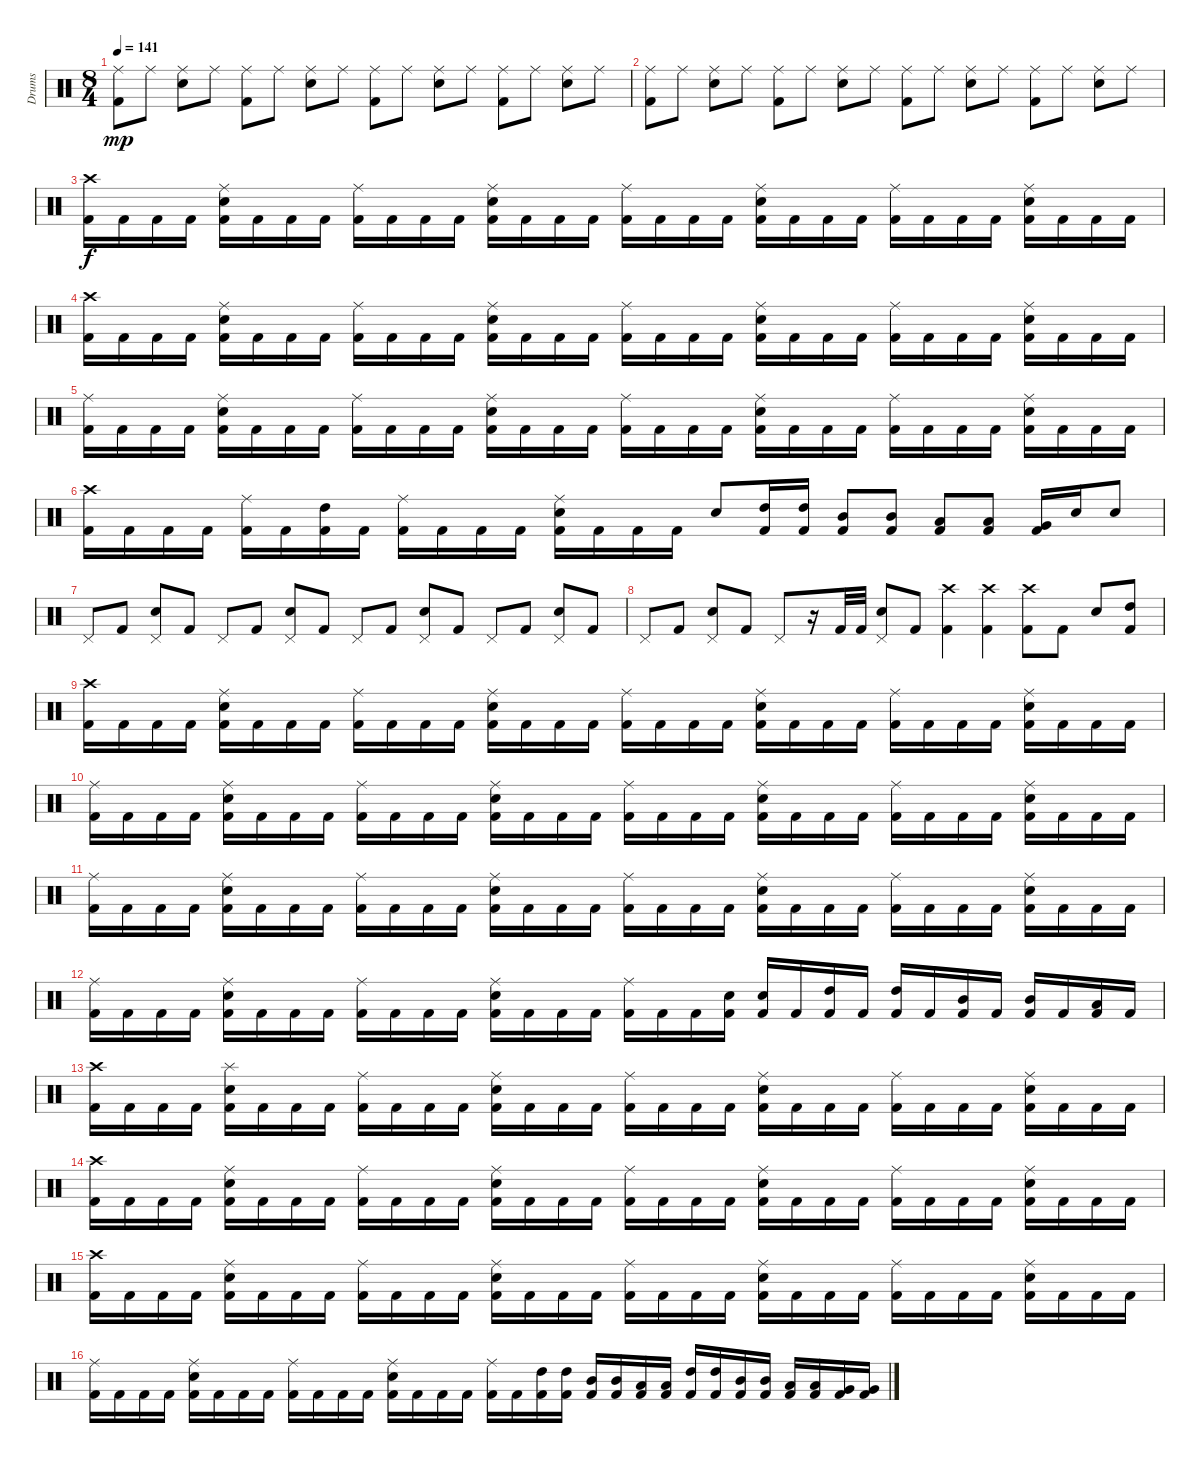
\track ("Drums" "Drums") {instrument percussion}
\staff {score}
\articulation defaults
\ts (8 4)
\tempo 141
\clef neutral
\ks c
("Ride (middle)" "Kick (hit) 2").8{dy mp} "Ride (middle)".8 ("Ride (middle)" "Snare (hit) 2").8 "Ride (middle)".8 ("Ride (middle)" "Kick (hit) 2").8 "Ride (middle)".8 ("Ride (middle)" "Snare (hit) 2").8 "Ride (middle)".8 ("Ride (middle)" "Kick (hit) 2").8 "Ride (middle)".8 ("Ride (middle)" "Snare (hit) 2").8 "Ride (middle)".8 ("Ride (middle)" "Kick (hit) 2").8 "Ride (middle)".8 ("Ride (middle)" "Snare (hit) 2").8 "Ride (middle)".8 |
("Ride (middle)" "Kick (hit) 2").8 "Ride (middle)".8 ("Ride (middle)" "Snare (hit) 2").8 "Ride (middle)".8 ("Ride (middle)" "Kick (hit) 2").8 "Ride (middle)".8 ("Ride (middle)" "Snare (hit) 2").8 "Ride (middle)".8 ("Ride (middle)" "Kick (hit) 2").8 "Ride (middle)".8 ("Ride (middle)" "Snare (hit) 2").8 "Ride (middle)".8 ("Ride (middle)" "Kick (hit) 2").8 "Ride (middle)".8 ("Ride (middle)" "Snare (hit) 2").8 "Ride (middle)".8 |
("Crash high (hit)" "Kick (hit) 2").16{dy f} "Kick (hit) 2".16 "Kick (hit) 2".16 "Kick (hit) 2".16 ("Ride (middle)" "Snare (hit) 2" "Kick (hit) 2").16 "Kick (hit) 2".16 "Kick (hit) 2".16 "Kick (hit) 2".16 ("Ride (middle)" "Kick (hit) 2").16 "Kick (hit) 2".16 "Kick (hit) 2".16 "Kick (hit) 2".16 ("Ride (middle)" "Snare (hit) 2" "Kick (hit) 2").16 "Kick (hit) 2".16 "Kick (hit) 2".16 "Kick (hit) 2".16 ("Ride (middle)" "Kick (hit) 2").16 "Kick (hit) 2".16 "Kick (hit) 2".16 "Kick (hit) 2".16 ("Ride (middle)" "Snare (hit) 2" "Kick (hit) 2").16 "Kick (hit) 2".16 "Kick (hit) 2".16 "Kick (hit) 2".16 ("Ride (middle)" "Kick (hit) 2").16 "Kick (hit) 2".16 "Kick (hit) 2".16 "Kick (hit) 2".16 ("Ride (middle)" "Snare (hit) 2" "Kick (hit) 2").16 "Kick (hit) 2".16 "Kick (hit) 2".16 "Kick (hit) 2".16 |
("Crash high (hit)" "Kick (hit) 2").16 "Kick (hit) 2".16 "Kick (hit) 2".16 "Kick (hit) 2".16 ("Ride (middle)" "Snare (hit) 2" "Kick (hit) 2").16 "Kick (hit) 2".16 "Kick (hit) 2".16 "Kick (hit) 2".16 ("Ride (middle)" "Kick (hit) 2").16 "Kick (hit) 2".16 "Kick (hit) 2".16 "Kick (hit) 2".16 ("Ride (middle)" "Snare (hit) 2" "Kick (hit) 2").16 "Kick (hit) 2".16 "Kick (hit) 2".16 "Kick (hit) 2".16 ("Ride (middle)" "Kick (hit) 2").16 "Kick (hit) 2".16 "Kick (hit) 2".16 "Kick (hit) 2".16 ("Ride (middle)" "Snare (hit) 2" "Kick (hit) 2").16 "Kick (hit) 2".16 "Kick (hit) 2".16 "Kick (hit) 2".16 ("Ride (middle)" "Kick (hit) 2").16 "Kick (hit) 2".16 "Kick (hit) 2".16 "Kick (hit) 2".16 ("Ride (middle)" "Snare (hit) 2" "Kick (hit) 2").16 "Kick (hit) 2".16 "Kick (hit) 2".16 "Kick (hit) 2".16 |
("Ride (middle)" "Kick (hit) 2").16 "Kick (hit) 2".16 "Kick (hit) 2".16 "Kick (hit) 2".16 ("Ride (middle)" "Snare (hit) 2" "Kick (hit) 2").16 "Kick (hit) 2".16 "Kick (hit) 2".16 "Kick (hit) 2".16 ("Ride (middle)" "Kick (hit) 2").16 "Kick (hit) 2".16 "Kick (hit) 2".16 "Kick (hit) 2".16 ("Ride (middle)" "Snare (hit) 2" "Kick (hit) 2").16 "Kick (hit) 2".16 "Kick (hit) 2".16 "Kick (hit) 2".16 ("Ride (middle)" "Kick (hit) 2").16 "Kick (hit) 2".16 "Kick (hit) 2".16 "Kick (hit) 2".16 ("Ride (middle)" "Snare (hit) 2" "Kick (hit) 2").16 "Kick (hit) 2".16 "Kick (hit) 2".16 "Kick (hit) 2".16 ("Ride (middle)" "Kick (hit) 2").16 "Kick (hit) 2".16 "Kick (hit) 2".16 "Kick (hit) 2".16 ("Ride (middle)" "Snare (hit) 2" "Kick (hit) 2").16 "Kick (hit) 2".16 "Kick (hit) 2".16 "Kick (hit) 2".16 |
("Crash high (hit)" "Kick (hit) 2").16 "Kick (hit) 2".16 "Kick (hit) 2".16 "Kick (hit) 2".16 ("Ride (middle)" "Kick (hit) 2").16 "Kick (hit) 2".16 ("High Tom (hit)" "Kick (hit) 2").16 "Kick (hit) 2".16 ("Ride (middle)" "Kick (hit) 2").16 "Kick (hit) 2".16 "Kick (hit) 2".16 "Kick (hit) 2".16 ("Ride (middle)" "Snare (hit) 2" "Kick (hit) 2").16 "Kick (hit) 2".16 "Kick (hit) 2".16 "Kick (hit) 2".16 "Snare (hit) 2".8 ("High Tom (hit)" "Kick (hit) 2").16 ("High Tom (hit)" "Kick (hit) 2").16 ("Mid Tom (hit)" "Kick (hit) 2").8 ("Mid Tom (hit)" "Kick (hit) 2").8 ("Low Tom (hit)" "Kick (hit) 2").8 ("Low Tom (hit)" "Kick (hit) 2").8 ("Very Low Tom (hit)" "Kick (hit) 2").16 "Snare (hit) 2".16 "Snare (hit) 2".8 |
"Pedal Hi-Hat (hit)".8 "Kick (hit) 2".8 ("Pedal Hi-Hat (hit)" "Snare (hit) 2").8 "Kick (hit) 2".8 "Pedal Hi-Hat (hit)".8 "Kick (hit) 2".8 ("Pedal Hi-Hat (hit)" "Snare (hit) 2").8 "Kick (hit) 2".8 "Pedal Hi-Hat (hit)".8 "Kick (hit) 2".8 ("Pedal Hi-Hat (hit)" "Snare (hit) 2").8 "Kick (hit) 2".8 "Pedal Hi-Hat (hit)".8 "Kick (hit) 2".8 ("Pedal Hi-Hat (hit)" "Snare (hit) 2").8 "Kick (hit) 2".8 |
"Pedal Hi-Hat (hit)".8 "Kick (hit) 2".8 ("Pedal Hi-Hat (hit)" "Snare (hit) 2").8 "Kick (hit) 2".8 "Pedal Hi-Hat (hit)".8 r.16 "Kick (hit) 2".32 "Kick (hit) 2".32 ("Pedal Hi-Hat (hit)" "Snare (hit) 2").8 "Kick (hit) 2".8 ("Crash high (hit)" "Kick (hit) 2").4 ("Crash high (hit)" "Kick (hit) 2").4 ("Crash high (hit)" "Kick (hit) 2").8 "Kick (hit) 2".8 "Snare (hit) 2".8 ("High Tom (hit)" "Kick (hit) 2").8 |
("Crash high (hit)" "Kick (hit) 2").16 "Kick (hit) 2".16 "Kick (hit) 2".16 "Kick (hit) 2".16 ("Ride (middle)" "Snare (hit) 2" "Kick (hit) 2").16 "Kick (hit) 2".16 "Kick (hit) 2".16 "Kick (hit) 2".16 ("Ride (middle)" "Kick (hit) 2").16 "Kick (hit) 2".16 "Kick (hit) 2".16 "Kick (hit) 2".16 ("Ride (middle)" "Snare (hit) 2" "Kick (hit) 2").16 "Kick (hit) 2".16 "Kick (hit) 2".16 "Kick (hit) 2".16 ("Ride (middle)" "Kick (hit) 2").16 "Kick (hit) 2".16 "Kick (hit) 2".16 "Kick (hit) 2".16 ("Ride (middle)" "Snare (hit) 2" "Kick (hit) 2").16 "Kick (hit) 2".16 "Kick (hit) 2".16 "Kick (hit) 2".16 ("Ride (middle)" "Kick (hit) 2").16 "Kick (hit) 2".16 "Kick (hit) 2".16 "Kick (hit) 2".16 ("Ride (middle)" "Snare (hit) 2" "Kick (hit) 2").16 "Kick (hit) 2".16 "Kick (hit) 2".16 "Kick (hit) 2".16 |
("Ride (middle)" "Kick (hit) 2").16 "Kick (hit) 2".16 "Kick (hit) 2".16 "Kick (hit) 2".16 ("Ride (middle)" "Snare (hit) 2" "Kick (hit) 2").16 "Kick (hit) 2".16 "Kick (hit) 2".16 "Kick (hit) 2".16 ("Ride (middle)" "Kick (hit) 2").16 "Kick (hit) 2".16 "Kick (hit) 2".16 "Kick (hit) 2".16 ("Ride (middle)" "Snare (hit) 2" "Kick (hit) 2").16 "Kick (hit) 2".16 "Kick (hit) 2".16 "Kick (hit) 2".16 ("Ride (middle)" "Kick (hit) 2").16 "Kick (hit) 2".16 "Kick (hit) 2".16 "Kick (hit) 2".16 ("Ride (middle)" "Snare (hit) 2" "Kick (hit) 2").16 "Kick (hit) 2".16 "Kick (hit) 2".16 "Kick (hit) 2".16 ("Ride (middle)" "Kick (hit) 2").16 "Kick (hit) 2".16 "Kick (hit) 2".16 "Kick (hit) 2".16 ("Ride (middle)" "Snare (hit) 2" "Kick (hit) 2").16 "Kick (hit) 2".16 "Kick (hit) 2".16 "Kick (hit) 2".16 |
("Ride (middle)" "Kick (hit) 2").16 "Kick (hit) 2".16 "Kick (hit) 2".16 "Kick (hit) 2".16 ("Ride (middle)" "Snare (hit) 2" "Kick (hit) 2").16 "Kick (hit) 2".16 "Kick (hit) 2".16 "Kick (hit) 2".16 ("Ride (middle)" "Kick (hit) 2").16 "Kick (hit) 2".16 "Kick (hit) 2".16 "Kick (hit) 2".16 ("Ride (middle)" "Snare (hit) 2" "Kick (hit) 2").16 "Kick (hit) 2".16 "Kick (hit) 2".16 "Kick (hit) 2".16 ("Ride (middle)" "Kick (hit) 2").16 "Kick (hit) 2".16 "Kick (hit) 2".16 "Kick (hit) 2".16 ("Ride (middle)" "Snare (hit) 2" "Kick (hit) 2").16 "Kick (hit) 2".16 "Kick (hit) 2".16 "Kick (hit) 2".16 ("Ride (middle)" "Kick (hit) 2").16 "Kick (hit) 2".16 "Kick (hit) 2".16 "Kick (hit) 2".16 ("Ride (middle)" "Snare (hit) 2" "Kick (hit) 2").16 "Kick (hit) 2".16 "Kick (hit) 2".16 "Kick (hit) 2".16 |
("Ride (middle)" "Kick (hit) 2").16 "Kick (hit) 2".16 "Kick (hit) 2".16 "Kick (hit) 2".16 ("Ride (middle)" "Snare (hit) 2" "Kick (hit) 2").16 "Kick (hit) 2".16 "Kick (hit) 2".16 "Kick (hit) 2".16 ("Ride (middle)" "Kick (hit) 2").16 "Kick (hit) 2".16 "Kick (hit) 2".16 "Kick (hit) 2".16 ("Ride (middle)" "Snare (hit) 2" "Kick (hit) 2").16 "Kick (hit) 2".16 "Kick (hit) 2".16 "Kick (hit) 2".16 ("Ride (middle)" "Kick (hit) 2").16 "Kick (hit) 2".16 "Kick (hit) 2".16 ("Snare (hit) 2" "Kick (hit) 2").16 ("Snare (hit) 2" "Kick (hit) 2").16 "Kick (hit) 2".16 ("High Tom (hit)" "Kick (hit) 2").16 "Kick (hit) 2".16 ("High Tom (hit)" "Kick (hit) 2").16 "Kick (hit) 2".16 ("Mid Tom (hit)" "Kick (hit) 2").16 "Kick (hit) 2".16 ("Mid Tom (hit)" "Kick (hit) 2").16 "Kick (hit) 2".16 ("Low Tom (hit)" "Kick (hit) 2").16 "Kick (hit) 2".16 |
("Crash high (hit)" "Kick (hit) 2").16 "Kick (hit) 2".16 "Kick (hit) 2".16 "Kick (hit) 2".16 ("Splash (hit)" "Snare (hit) 2" "Kick (hit) 2").16 "Kick (hit) 2".16 "Kick (hit) 2".16 "Kick (hit) 2".16 ("Ride (middle)" "Kick (hit) 2").16 "Kick (hit) 2".16 "Kick (hit) 2".16 "Kick (hit) 2".16 ("Ride (middle)" "Snare (hit) 2" "Kick (hit) 2").16 "Kick (hit) 2".16 "Kick (hit) 2".16 "Kick (hit) 2".16 ("Ride (middle)" "Kick (hit) 2").16 "Kick (hit) 2".16 "Kick (hit) 2".16 "Kick (hit) 2".16 ("Ride (middle)" "Snare (hit) 2" "Kick (hit) 2").16 "Kick (hit) 2".16 "Kick (hit) 2".16 "Kick (hit) 2".16 ("Ride (middle)" "Kick (hit) 2").16 "Kick (hit) 2".16 "Kick (hit) 2".16 "Kick (hit) 2".16 ("Ride (middle)" "Snare (hit) 2" "Kick (hit) 2").16 "Kick (hit) 2".16 "Kick (hit) 2".16 "Kick (hit) 2".16 |
("Crash high (hit)" "Kick (hit) 2").16 "Kick (hit) 2".16 "Kick (hit) 2".16 "Kick (hit) 2".16 ("Ride (middle)" "Snare (hit) 2" "Kick (hit) 2").16 "Kick (hit) 2".16 "Kick (hit) 2".16 "Kick (hit) 2".16 ("Ride (middle)" "Kick (hit) 2").16 "Kick (hit) 2".16 "Kick (hit) 2".16 "Kick (hit) 2".16 ("Ride (middle)" "Snare (hit) 2" "Kick (hit) 2").16 "Kick (hit) 2".16 "Kick (hit) 2".16 "Kick (hit) 2".16 ("Ride (middle)" "Kick (hit) 2").16 "Kick (hit) 2".16 "Kick (hit) 2".16 "Kick (hit) 2".16 ("Ride (middle)" "Snare (hit) 2" "Kick (hit) 2").16 "Kick (hit) 2".16 "Kick (hit) 2".16 "Kick (hit) 2".16 ("Ride (middle)" "Kick (hit) 2").16 "Kick (hit) 2".16 "Kick (hit) 2".16 "Kick (hit) 2".16 ("Ride (middle)" "Snare (hit) 2" "Kick (hit) 2").16 "Kick (hit) 2".16 "Kick (hit) 2".16 "Kick (hit) 2".16 |
("Crash high (hit)" "Kick (hit) 2").16 "Kick (hit) 2".16 "Kick (hit) 2".16 "Kick (hit) 2".16 ("Ride (middle)" "Snare (hit) 2" "Kick (hit) 2").16 "Kick (hit) 2".16 "Kick (hit) 2".16 "Kick (hit) 2".16 ("Ride (middle)" "Kick (hit) 2").16 "Kick (hit) 2".16 "Kick (hit) 2".16 "Kick (hit) 2".16 ("Ride (middle)" "Snare (hit) 2" "Kick (hit) 2").16 "Kick (hit) 2".16 "Kick (hit) 2".16 "Kick (hit) 2".16 ("Ride (middle)" "Kick (hit) 2").16 "Kick (hit) 2".16 "Kick (hit) 2".16 "Kick (hit) 2".16 ("Ride (middle)" "Snare (hit) 2" "Kick (hit) 2").16 "Kick (hit) 2".16 "Kick (hit) 2".16 "Kick (hit) 2".16 ("Ride (middle)" "Kick (hit) 2").16 "Kick (hit) 2".16 "Kick (hit) 2".16 "Kick (hit) 2".16 ("Ride (middle)" "Snare (hit) 2" "Kick (hit) 2").16 "Kick (hit) 2".16 "Kick (hit) 2".16 "Kick (hit) 2".16 |
("Ride (middle)" "Kick (hit) 2").16 "Kick (hit) 2".16 "Kick (hit) 2".16 "Kick (hit) 2".16 ("Ride (middle)" "Snare (hit) 2" "Kick (hit) 2").16 "Kick (hit) 2".16 "Kick (hit) 2".16 "Kick (hit) 2".16 ("Ride (middle)" "Kick (hit) 2").16 "Kick (hit) 2".16 "Kick (hit) 2".16 "Kick (hit) 2".16 ("Ride (middle)" "Snare (hit) 2" "Kick (hit) 2").16 "Kick (hit) 2".16 "Kick (hit) 2".16 "Kick (hit) 2".16 ("Ride (middle)" "Kick (hit) 2").16 "Kick (hit) 2".16 ("High Tom (hit)" "Kick (hit) 2").16 ("High Tom (hit)" "Kick (hit) 2").16 ("Mid Tom (hit)" "Kick (hit) 2").16 ("Mid Tom (hit)" "Kick (hit) 2").16 ("Low Tom (hit)" "Kick (hit) 2").16 ("Low Tom (hit)" "Kick (hit) 2").16 ("High Tom (hit)" "Kick (hit) 2").16 ("High Tom (hit)" "Kick (hit) 2").16 ("Mid Tom (hit)" "Kick (hit) 2").16 ("Mid Tom (hit)" "Kick (hit) 2").16 ("Low Tom (hit)" "Kick (hit) 2").16 ("Low Tom (hit)" "Kick (hit) 2").16 ("Very Low Tom (hit)" "Kick (hit) 2").16 ("Very Low Tom (hit)" "Kick (hit) 2").16
